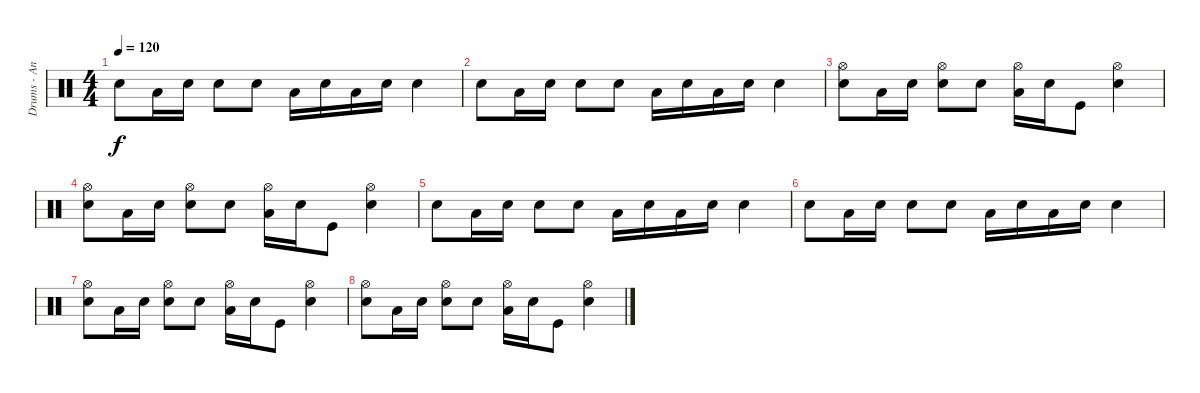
\track ("Drums - Andrew" "Drums - An") {instrument percussion}
\staff {score}
\articulation defaults
\ts (4 4)
\tempo 120
\clef neutral
\ks c "Electric Snare (hit)".8{dy f} "Low Tom (hit)".16 "Electric Snare (hit)".16 "Electric Snare (hit)".8 "Electric Snare (hit)".8 "Low Tom (hit)".16 "Electric Snare (hit)".16 "Low Tom (hit)".16 "Electric Snare (hit)".16 "Electric Snare (hit)".4
|
"Electric Snare (hit)".8 "Low Tom (hit)".16 "Electric Snare (hit)".16 "Electric Snare (hit)".8 "Electric Snare (hit)".8 "Low Tom (hit)".16 "Electric Snare (hit)".16 "Low Tom (hit)".16 "Electric Snare (hit)".16 "Electric Snare (hit)".4 |
("Hi-Hat (open)" "Electric Snare (hit)").8 "Low Tom (hit)".16 "Electric Snare (hit)".16 ("Hi-Hat (open)" "Electric Snare (hit)").8 "Electric Snare (hit)".8 ("Hi-Hat (open)" "Low Tom (hit)").16 "Electric Snare (hit)".16 "Kick (hit)".8 ("Hi-Hat (open)" "Electric Snare (hit)").4 |
("Hi-Hat (open)" "Electric Snare (hit)").8 "Low Tom (hit)".16 "Electric Snare (hit)".16 ("Hi-Hat (open)" "Electric Snare (hit)").8 "Electric Snare (hit)".8 ("Hi-Hat (open)" "Low Tom (hit)").16 "Electric Snare (hit)".16 "Kick (hit)".8 ("Hi-Hat (open)" "Electric Snare (hit)").4 |
"Electric Snare (hit)".8 "Low Tom (hit)".16 "Electric Snare (hit)".16 "Electric Snare (hit)".8 "Electric Snare (hit)".8 "Low Tom (hit)".16 "Electric Snare (hit)".16 "Low Tom (hit)".16 "Electric Snare (hit)".16 "Electric Snare (hit)".4 |
"Electric Snare (hit)".8 "Low Tom (hit)".16 "Electric Snare (hit)".16 "Electric Snare (hit)".8 "Electric Snare (hit)".8 "Low Tom (hit)".16 "Electric Snare (hit)".16 "Low Tom (hit)".16 "Electric Snare (hit)".16 "Electric Snare (hit)".4 |
("Hi-Hat (open)" "Electric Snare (hit)").8 "Low Tom (hit)".16 "Electric Snare (hit)".16 ("Hi-Hat (open)" "Electric Snare (hit)").8 "Electric Snare (hit)".8 ("Hi-Hat (open)" "Low Tom (hit)").16 "Electric Snare (hit)".16 "Kick (hit)".8 ("Hi-Hat (open)" "Electric Snare (hit)").4 |
("Hi-Hat (open)" "Electric Snare (hit)").8 "Low Tom (hit)".16 "Electric Snare (hit)".16 ("Hi-Hat (open)" "Electric Snare (hit)").8 "Electric Snare (hit)".8 ("Hi-Hat (open)" "Low Tom (hit)").16 "Electric Snare (hit)".16 "Kick (hit)".8 ("Hi-Hat (open)" "Electric Snare (hit)").4
